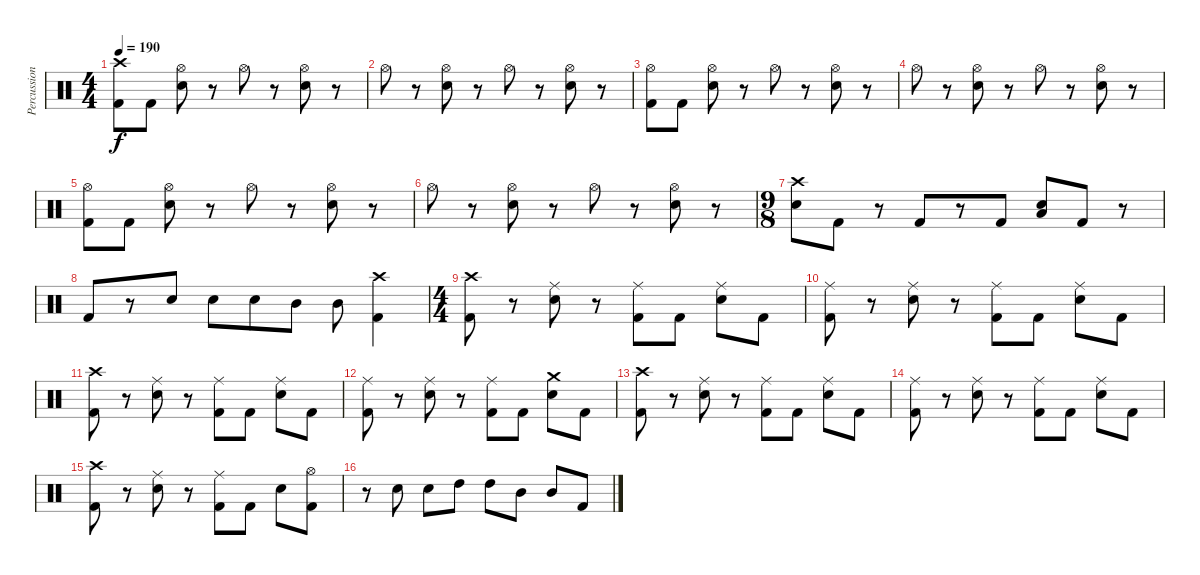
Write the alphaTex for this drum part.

\track ("Percussion" "Percussion") {instrument percussion}
\staff {score}
\articulation defaults
\ts (4 4)
\tempo 190
\clef neutral
\ks c
("Crash high (hit)" "Kick (hit) 2").8{dy f} "Kick (hit) 2".8 ("Hi-Hat (open)" "Snare (hit) 2").8 r.8 "Hi-Hat (open)".8 r.8 ("Hi-Hat (open)" "Snare (hit) 2").8 r.8 |
"Hi-Hat (open)".8 r.8 ("Hi-Hat (open)" "Snare (hit) 2").8 r.8 "Hi-Hat (open)".8 r.8 ("Hi-Hat (open)" "Snare (hit) 2").8 r.8 |
("Hi-Hat (open)" "Kick (hit) 2").8 "Kick (hit) 2".8 ("Hi-Hat (open)" "Snare (hit) 2").8 r.8 "Hi-Hat (open)".8 r.8 ("Hi-Hat (open)" "Snare (hit) 2").8 r.8 |
"Hi-Hat (open)".8 r.8 ("Hi-Hat (open)" "Snare (hit) 2").8 r.8 "Hi-Hat (open)".8 r.8 ("Hi-Hat (open)" "Snare (hit) 2").8 r.8 |
("Hi-Hat (open)" "Kick (hit) 2").8 "Kick (hit) 2".8 ("Hi-Hat (open)" "Snare (hit) 2").8 r.8 "Hi-Hat (open)".8 r.8 ("Hi-Hat (open)" "Snare (hit) 2").8 r.8 |
"Hi-Hat (open)".8 r.8 ("Hi-Hat (open)" "Snare (hit) 2").8 r.8 "Hi-Hat (open)".8 r.8 ("Hi-Hat (open)" "Snare (hit) 2").8 r.8 |
\ts (9 8)
("Crash high (hit)" "Snare (hit) 2").8 "Kick (hit) 2".8 r.8 "Kick (hit) 2".8 r.8 "Kick (hit) 2".8 ("Low Tom (hit)" "Snare (hit) 2").8 "Kick (hit) 2".8 r.8 |
"Kick (hit) 2".8 r.8 "Snare (hit) 2".8 "Snare (hit) 2".8 "Snare (hit) 2".8 "Mid Tom (hit)".8 "Mid Tom (hit)".8 ("Crash high (hit)" "Kick (hit) 2").4 |
\ts (4 4)
("Crash high (hit)" "Kick (hit) 2").8 r.8 ("Ride (middle)" "Snare (hit) 2").8 r.8 ("Ride (middle)" "Kick (hit) 2").8 "Kick (hit) 2".8 ("Ride (middle)" "Snare (hit) 2").8 "Kick (hit) 2".8 |
("Ride (middle)" "Kick (hit) 2").8 r.8 ("Ride (middle)" "Snare (hit) 2").8 r.8 ("Ride (middle)" "Kick (hit) 2").8 "Kick (hit) 2".8 ("Ride (middle)" "Snare (hit) 2").8 "Kick (hit) 2".8 |
("Crash high (hit)" "Kick (hit) 2").8 r.8 ("Ride (middle)" "Snare (hit) 2").8 r.8 ("Ride (middle)" "Kick (hit) 2").8 "Kick (hit) 2".8 ("Ride (middle)" "Snare (hit) 2").8 "Kick (hit) 2".8 |
("Ride (middle)" "Kick (hit) 2").8 r.8 ("Ride (middle)" "Snare (hit) 2").8 r.8 ("Ride (middle)" "Kick (hit) 2").8 "Kick (hit) 2".8 ("Crash medium (hit)" "Snare (hit) 2").8 "Kick (hit) 2".8 |
("Crash high (hit)" "Kick (hit) 2").8 r.8 ("Ride (middle)" "Snare (hit) 2").8 r.8 ("Ride (middle)" "Kick (hit) 2").8 "Kick (hit) 2".8 ("Ride (middle)" "Snare (hit) 2").8 "Kick (hit) 2".8 |
("Ride (middle)" "Kick (hit) 2").8 r.8 ("Ride (middle)" "Snare (hit) 2").8 r.8 ("Ride (middle)" "Kick (hit) 2").8 "Kick (hit) 2".8 ("Ride (middle)" "Snare (hit) 2").8 "Kick (hit) 2".8 |
("Crash high (hit)" "Kick (hit) 2").8 r.8 ("Ride (middle)" "Snare (hit) 2").8 r.8 ("Ride (middle)" "Kick (hit) 2").8 "Kick (hit) 2".8 "Snare (hit) 2".8 ("Hi-Hat (open)" "Kick (hit) 2").8 |
r.8 "Snare (hit) 2".8 "Snare (hit) 2".8 "High Tom (hit)".8 "High Tom (hit)".8 "Mid Tom (hit)".8 "Mid Tom (hit)".8 "Kick (hit) 2".8
